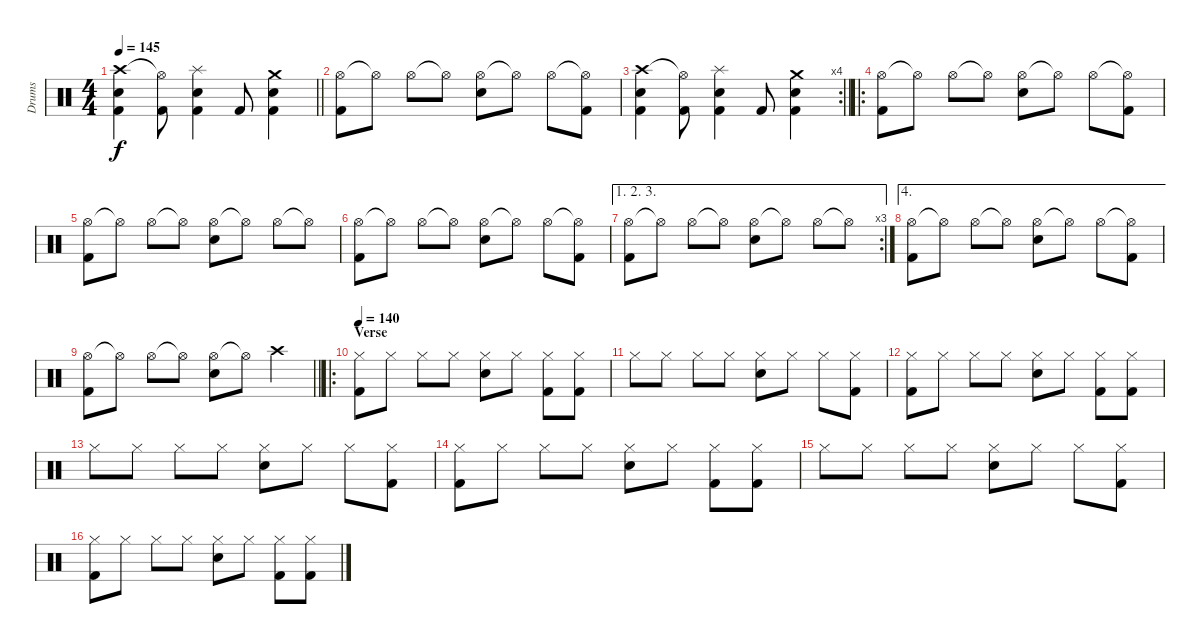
\track ("Drums" "Drums") {instrument percussion}
\staff {score}
\articulation defaults
\ts (4 4)
\tempo 145
\clef neutral
\barLineRight lightlight
\ks c
("Crash high (hit)" "Snare (hit) 2" "Kick (hit) 2").4{dy f} ("Hi-Hat (open)"{t} "Kick (hit) 2").8 ("Splash (hit)" "Snare (hit) 2" "Kick (hit) 2").4 "Kick (hit) 2".8 ("Crash medium (hit)" "Snare (hit) 2" "Kick (hit) 2").4 |
("Hi-Hat (open)" "Kick (hit) 2").8 "Hi-Hat (open)"{t}.8 "Hi-Hat (open)".8 "Hi-Hat (open)"{t}.8 ("Hi-Hat (open)" "Snare (hit) 2").8 "Hi-Hat (open)"{t}.8 "Hi-Hat (open)".8 ("Hi-Hat (open)"{t} "Kick (hit) 2").8 |
\rc 4
\barLineRight lightlight
("Crash high (hit)" "Snare (hit) 2" "Kick (hit) 2").4 ("Hi-Hat (open)"{t} "Kick (hit) 2").8 ("Splash (hit)" "Snare (hit) 2" "Kick (hit) 2").4 "Kick (hit) 2".8 ("Crash medium (hit)" "Snare (hit) 2" "Kick (hit) 2").4 |
\ro
("Hi-Hat (open)" "Kick (hit) 2").8 "Hi-Hat (open)"{t}.8 "Hi-Hat (open)".8 "Hi-Hat (open)"{t}.8 ("Hi-Hat (open)" "Snare (hit) 2").8 "Hi-Hat (open)"{t}.8 "Hi-Hat (open)".8 ("Hi-Hat (open)"{t} "Kick (hit) 2").8 |
("Hi-Hat (open)" "Kick (hit) 2").8 "Hi-Hat (open)"{t}.8 "Hi-Hat (open)".8 "Hi-Hat (open)"{t}.8 ("Hi-Hat (open)" "Snare (hit) 2").8 "Hi-Hat (open)"{t}.8 "Hi-Hat (open)".8 "Hi-Hat (open)"{t}.8 |
("Hi-Hat (open)" "Kick (hit) 2").8 "Hi-Hat (open)"{t}.8 "Hi-Hat (open)".8 "Hi-Hat (open)"{t}.8 ("Hi-Hat (open)" "Snare (hit) 2").8 "Hi-Hat (open)"{t}.8 "Hi-Hat (open)".8 ("Hi-Hat (open)"{t} "Kick (hit) 2").8 |
\ae (1 2 3)
\rc 3
("Hi-Hat (open)" "Kick (hit) 2").8 "Hi-Hat (open)"{t}.8 "Hi-Hat (open)".8 "Hi-Hat (open)"{t}.8 ("Hi-Hat (open)" "Snare (hit) 2").8 "Hi-Hat (open)"{t}.8 "Hi-Hat (open)".8 "Hi-Hat (open)"{t}.8 |
\ae 4
("Hi-Hat (open)" "Kick (hit) 2").8 "Hi-Hat (open)"{t}.8 "Hi-Hat (open)".8 "Hi-Hat (open)"{t}.8 ("Hi-Hat (open)" "Snare (hit) 2").8 "Hi-Hat (open)"{t}.8 "Hi-Hat (open)".8 ("Hi-Hat (open)"{t} "Kick (hit) 2").8 |
\barLineRight lightlight
("Hi-Hat (open)" "Kick (hit) 2").8 "Hi-Hat (open)"{t}.8 "Hi-Hat (open)".8 "Hi-Hat (open)"{t}.8 ("Hi-Hat (open)" "Snare (hit) 2").8 "Hi-Hat (open)"{t}.8 "Crash high (hit)".4 |
\ro
\section ("" "Verse")
\tempo 140
("Hi-Hat (closed)" "Kick (hit) 2").8 "Hi-Hat (closed)".8 "Hi-Hat (closed)".8 "Hi-Hat (closed)".8 ("Hi-Hat (closed)" "Snare (hit) 2").8 "Hi-Hat (closed)".8 ("Hi-Hat (closed)" "Kick (hit) 2").8 ("Hi-Hat (closed)" "Kick (hit) 2").8 |
"Hi-Hat (closed)".8 "Hi-Hat (closed)".8 "Hi-Hat (closed)".8 "Hi-Hat (closed)".8 ("Hi-Hat (closed)" "Snare (hit) 2").8 "Hi-Hat (closed)".8 "Hi-Hat (closed)".8 ("Hi-Hat (closed)" "Kick (hit) 2").8 |
("Hi-Hat (closed)" "Kick (hit) 2").8 "Hi-Hat (closed)".8 "Hi-Hat (closed)".8 "Hi-Hat (closed)".8 ("Hi-Hat (closed)" "Snare (hit) 2").8 "Hi-Hat (closed)".8 ("Hi-Hat (closed)" "Kick (hit) 2").8 ("Hi-Hat (closed)" "Kick (hit) 2").8 |
"Hi-Hat (closed)".8 "Hi-Hat (closed)".8 "Hi-Hat (closed)".8 "Hi-Hat (closed)".8 ("Hi-Hat (closed)" "Snare (hit) 2").8 "Hi-Hat (closed)".8 "Hi-Hat (closed)".8 ("Hi-Hat (closed)" "Kick (hit) 2").8 |
("Hi-Hat (closed)" "Kick (hit) 2").8 "Hi-Hat (closed)".8 "Hi-Hat (closed)".8 "Hi-Hat (closed)".8 ("Hi-Hat (closed)" "Snare (hit) 2").8 "Hi-Hat (closed)".8 ("Hi-Hat (closed)" "Kick (hit) 2").8 ("Hi-Hat (closed)" "Kick (hit) 2").8 |
"Hi-Hat (closed)".8 "Hi-Hat (closed)".8 "Hi-Hat (closed)".8 "Hi-Hat (closed)".8 ("Hi-Hat (closed)" "Snare (hit) 2").8 "Hi-Hat (closed)".8 "Hi-Hat (closed)".8 ("Hi-Hat (closed)" "Kick (hit) 2").8 |
("Hi-Hat (closed)" "Kick (hit) 2").8 "Hi-Hat (closed)".8 "Hi-Hat (closed)".8 "Hi-Hat (closed)".8 ("Hi-Hat (closed)" "Snare (hit) 2").8 "Hi-Hat (closed)".8 ("Hi-Hat (closed)" "Kick (hit) 2").8 ("Hi-Hat (closed)" "Kick (hit) 2").8
